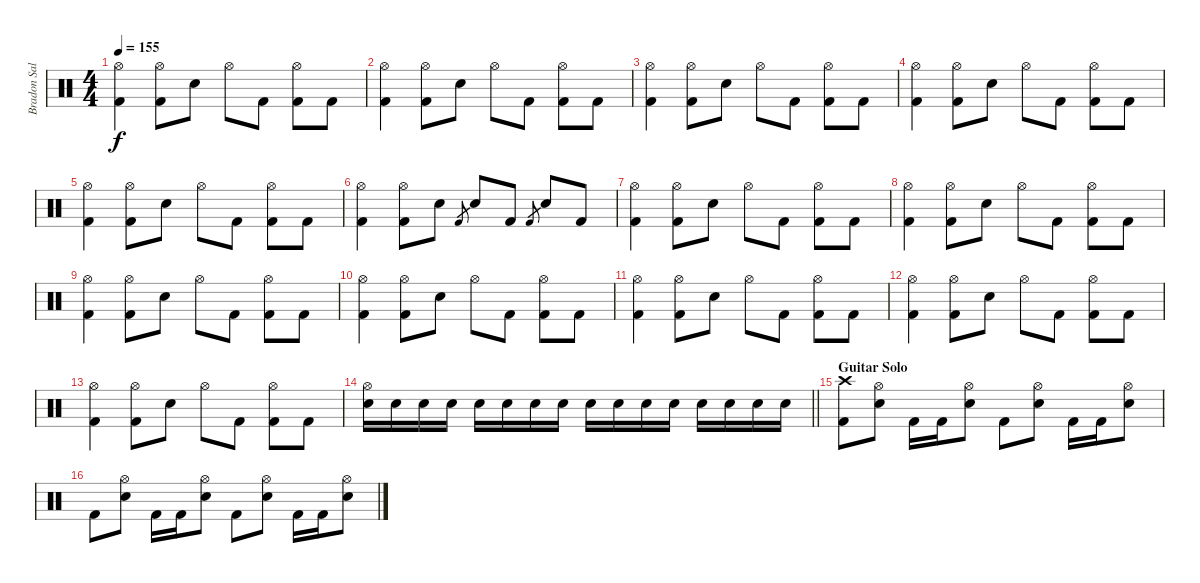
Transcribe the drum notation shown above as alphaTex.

\track ("Bradon Saller" "Bradon Sal") {instrument percussion}
\staff {score}
\articulation defaults
\ts (4 4)
\tempo 155
\clef neutral
\ks c
("Hi-Hat (open)" "Kick (hit) 2").4{dy f} ("Hi-Hat (open)" "Kick (hit) 2").8 "Electric Snare (hit)".8 "Hi-Hat (open)".8 "Kick (hit) 2".8 ("Hi-Hat (open)" "Kick (hit) 2").8 "Kick (hit) 2".8 |
("Hi-Hat (open)" "Kick (hit) 2").4 ("Hi-Hat (open)" "Kick (hit) 2").8 "Electric Snare (hit)".8 "Hi-Hat (open)".8 "Kick (hit) 2".8 ("Hi-Hat (open)" "Kick (hit) 2").8 "Kick (hit) 2".8 |
("Hi-Hat (open)" "Kick (hit) 2").4 ("Hi-Hat (open)" "Kick (hit) 2").8 "Electric Snare (hit)".8 "Hi-Hat (open)".8 "Kick (hit) 2".8 ("Hi-Hat (open)" "Kick (hit) 2").8 "Kick (hit) 2".8 |
("Hi-Hat (open)" "Kick (hit) 2").4 ("Hi-Hat (open)" "Kick (hit) 2").8 "Electric Snare (hit)".8 "Hi-Hat (open)".8 "Kick (hit) 2".8 ("Hi-Hat (open)" "Kick (hit) 2").8 "Kick (hit) 2".8 |
("Hi-Hat (open)" "Kick (hit) 2").4 ("Hi-Hat (open)" "Kick (hit) 2").8 "Electric Snare (hit)".8 "Hi-Hat (open)".8 "Kick (hit) 2".8 ("Hi-Hat (open)" "Kick (hit) 2").8 "Kick (hit) 2".8 |
("Hi-Hat (open)" "Kick (hit) 2").4 ("Hi-Hat (open)" "Kick (hit) 2").8 "Electric Snare (hit)".8 "Kick (hit) 2".8{gr} "Electric Snare (hit)".8 "Kick (hit) 2".8 "Kick (hit) 2".8{gr} "Electric Snare (hit)".8 "Kick (hit) 2".8 |
("Hi-Hat (open)" "Kick (hit) 2").4 ("Hi-Hat (open)" "Kick (hit) 2").8 "Electric Snare (hit)".8 "Hi-Hat (open)".8 "Kick (hit) 2".8 ("Hi-Hat (open)" "Kick (hit) 2").8 "Kick (hit) 2".8 |
("Hi-Hat (open)" "Kick (hit) 2").4 ("Hi-Hat (open)" "Kick (hit) 2").8 "Electric Snare (hit)".8 "Hi-Hat (open)".8 "Kick (hit) 2".8 ("Hi-Hat (open)" "Kick (hit) 2").8 "Kick (hit) 2".8 |
("Hi-Hat (open)" "Kick (hit) 2").4 ("Hi-Hat (open)" "Kick (hit) 2").8 "Electric Snare (hit)".8 "Hi-Hat (open)".8 "Kick (hit) 2".8 ("Hi-Hat (open)" "Kick (hit) 2").8 "Kick (hit) 2".8 |
("Hi-Hat (open)" "Kick (hit) 2").4 ("Hi-Hat (open)" "Kick (hit) 2").8 "Electric Snare (hit)".8 "Hi-Hat (open)".8 "Kick (hit) 2".8 ("Hi-Hat (open)" "Kick (hit) 2").8 "Kick (hit) 2".8 |
("Hi-Hat (open)" "Kick (hit) 2").4 ("Hi-Hat (open)" "Kick (hit) 2").8 "Electric Snare (hit)".8 "Hi-Hat (open)".8 "Kick (hit) 2".8 ("Hi-Hat (open)" "Kick (hit) 2").8 "Kick (hit) 2".8 |
("Hi-Hat (open)" "Kick (hit) 2").4 ("Hi-Hat (open)" "Kick (hit) 2").8 "Electric Snare (hit)".8 "Hi-Hat (open)".8 "Kick (hit) 2".8 ("Hi-Hat (open)" "Kick (hit) 2").8 "Kick (hit) 2".8 |
("Hi-Hat (open)" "Kick (hit) 2").4 ("Hi-Hat (open)" "Kick (hit) 2").8 "Electric Snare (hit)".8 "Hi-Hat (open)".8 "Kick (hit) 2".8 ("Hi-Hat (open)" "Kick (hit) 2").8 "Kick (hit) 2".8 |
\barLineRight lightlight
("Hi-Hat (open)" "Electric Snare (hit)").16 "Electric Snare (hit)".16 "Electric Snare (hit)".16 "Electric Snare (hit)".16 "Electric Snare (hit)".16 "Electric Snare (hit)".16 "Electric Snare (hit)".16 "Electric Snare (hit)".16 "Electric Snare (hit)".16 "Electric Snare (hit)".16 "Electric Snare (hit)".16 "Electric Snare (hit)".16 "Electric Snare (hit)".16 "Electric Snare (hit)".16 "Electric Snare (hit)".16 "Electric Snare (hit)".16 |
\section ("" "Guitar Solo")
("Crash high (hit)" "Kick (hit) 2").8 ("Hi-Hat (open)" "Electric Snare (hit)").8 "Kick (hit) 2".16 "Kick (hit) 2".16 ("Hi-Hat (open)" "Electric Snare (hit)").8 "Kick (hit) 2".8 ("Hi-Hat (open)" "Electric Snare (hit)").8 "Kick (hit) 2".16 "Kick (hit) 2".16 ("Hi-Hat (open)" "Electric Snare (hit)").8 |
"Kick (hit) 2".8 ("Hi-Hat (open)" "Electric Snare (hit)").8 "Kick (hit) 2".16 "Kick (hit) 2".16 ("Hi-Hat (open)" "Electric Snare (hit)").8 "Kick (hit) 2".8 ("Hi-Hat (open)" "Electric Snare (hit)").8 "Kick (hit) 2".16 "Kick (hit) 2".16 ("Hi-Hat (open)" "Electric Snare (hit)").8
